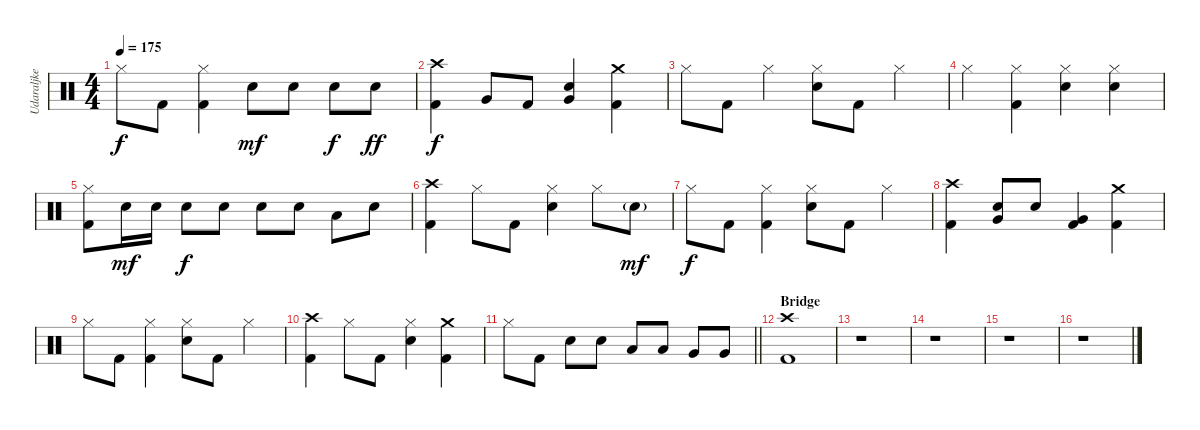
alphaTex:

\track ("Udaraljke" "Udaraljke") {instrument percussion}
\staff {score}
\articulation defaults
\ts (4 4)
\tempo 175
\clef neutral
\ks c "Hi-Hat (closed)".8{dy f} "Kick (hit) 2".8
("Hi-Hat (closed)" "Kick (hit) 2").4 "Electric Snare (hit)".8{dy mf} "Electric Snare (hit)".8 "Electric Snare (hit)".8{dy f} "Electric Snare (hit)".8{dy ff} |
("Crash high (hit)" "Kick (hit) 2").4{dy f} "Very Low Tom (hit)".8 "Kick (hit) 2".8 ("Very Low Tom (hit)" "Electric Snare (hit)").4 ("Crash medium (hit)" "Kick (hit) 2").4 |
"Hi-Hat (closed)".8 "Kick (hit) 2".8 "Hi-Hat (closed)".4 ("Hi-Hat (closed)" "Electric Snare (hit)").8 "Kick (hit) 2".8 "Hi-Hat (closed)".4 |
"Hi-Hat (closed)".4 ("Hi-Hat (closed)" "Kick (hit) 2").4 ("Hi-Hat (closed)" "Electric Snare (hit)").4 ("Hi-Hat (closed)" "Electric Snare (hit)").4 |
("Hi-Hat (closed)" "Kick (hit) 2").8 "Electric Snare (hit)".16{dy mf} "Electric Snare (hit)".16 "Electric Snare (hit)".8{dy f} "Electric Snare (hit)".8 "Electric Snare (hit)".8 "Electric Snare (hit)".8 "Low Tom (hit)".8 "Electric Snare (hit)".8 |
("Crash high (hit)" "Kick (hit) 2").4 "Hi-Hat (closed)".8 "Kick (hit) 2".8 ("Hi-Hat (closed)" "Electric Snare (hit)").4 "Hi-Hat (closed)".8 "Electric Snare (hit)"{g}.8{dy mf} |
"Hi-Hat (closed)".8{dy f} "Kick (hit) 2".8 ("Hi-Hat (closed)" "Kick (hit) 2").4 ("Hi-Hat (closed)" "Electric Snare (hit)").8 "Kick (hit) 2".8 "Hi-Hat (closed)".4 |
("Crash high (hit)" "Kick (hit) 2").4 ("Very Low Tom (hit)" "Electric Snare (hit)").8 "Electric Snare (hit)".8 ("Very Low Tom (hit)" "Kick (hit) 2").4 ("Crash medium (hit)" "Kick (hit) 2").4 |
"Hi-Hat (closed)".8 "Kick (hit) 2".8 ("Hi-Hat (closed)" "Kick (hit) 2").4 ("Hi-Hat (closed)" "Electric Snare (hit)").8 "Kick (hit) 2".8 "Hi-Hat (closed)".4 |
("Crash high (hit)" "Kick (hit) 2").4 "Hi-Hat (closed)".8 "Kick (hit) 2".8 ("Hi-Hat (closed)" "Electric Snare (hit)").4 ("Crash medium (hit)" "Kick (hit) 2").4 |
\barLineRight lightlight "Hi-Hat (closed)".8 "Kick (hit) 2".8 "Electric Snare (hit)".8 "Electric Snare (hit)".8 "Low Tom (hit)".8 "Low Tom (hit)".8 "Very Low Tom (hit)".8 "Very Low Tom (hit)".8
|
\section ("" "Bridge")
("Crash high (hit)" "Kick (hit) 2").1 |
r.1 |
r.1 |
r.1 |
r.1
